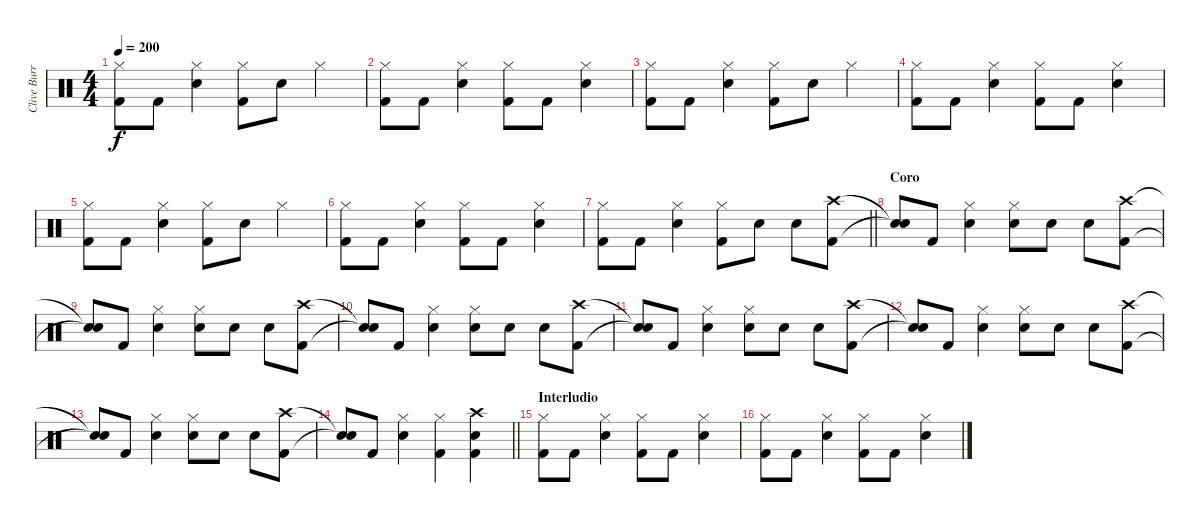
\track ("Clive Burr" "Clive Burr") {instrument percussion}
\staff {score}
\articulation defaults
\ts (4 4)
\tempo 200
\clef neutral
\ks c
("Hi-Hat (closed)" "Kick (hit) 2").8{dy f} "Kick (hit) 2".8 ("Hi-Hat (closed)" "Snare (hit) 2").4 ("Hi-Hat (closed)" "Kick (hit) 2").8 "Snare (hit) 2".8 "Hi-Hat (closed)".4 |
("Hi-Hat (closed)" "Kick (hit) 2").8 "Kick (hit) 2".8 ("Hi-Hat (closed)" "Snare (hit) 2").4 ("Hi-Hat (closed)" "Kick (hit) 2").8 "Kick (hit) 2".8 ("Hi-Hat (closed)" "Snare (hit) 2").4 |
("Hi-Hat (closed)" "Kick (hit) 2").8 "Kick (hit) 2".8 ("Hi-Hat (closed)" "Snare (hit) 2").4 ("Hi-Hat (closed)" "Kick (hit) 2").8 "Snare (hit) 2".8 "Hi-Hat (closed)".4 |
("Hi-Hat (closed)" "Kick (hit) 2").8 "Kick (hit) 2".8 ("Hi-Hat (closed)" "Snare (hit) 2").4 ("Hi-Hat (closed)" "Kick (hit) 2").8 "Kick (hit) 2".8 ("Hi-Hat (closed)" "Snare (hit) 2").4 |
("Hi-Hat (closed)" "Kick (hit) 2").8 "Kick (hit) 2".8 ("Hi-Hat (closed)" "Snare (hit) 2").4 ("Hi-Hat (closed)" "Kick (hit) 2").8 "Snare (hit) 2".8 "Hi-Hat (closed)".4 |
("Hi-Hat (closed)" "Kick (hit) 2").8 "Kick (hit) 2".8 ("Hi-Hat (closed)" "Snare (hit) 2").4 ("Hi-Hat (closed)" "Kick (hit) 2").8 "Kick (hit) 2".8 ("Hi-Hat (closed)" "Snare (hit) 2").4 |
\barLineRight lightlight
("Hi-Hat (closed)" "Kick (hit) 2").8 "Kick (hit) 2".8 ("Hi-Hat (closed)" "Snare (hit) 2").4 ("Hi-Hat (closed)" "Kick (hit) 2").8 "Snare (hit) 2".8 "Snare (hit) 2".8 ("Crash high (hit)" "Kick (hit) 2").8 |
\section ("" "Coro")
("Snare (hit)"{t} "Snare (hit)"{t}).8 "Kick (hit) 2".8 ("Hi-Hat (closed)" "Snare (hit) 2").4 ("Hi-Hat (closed)" "Snare (hit) 2").8 "Snare (hit) 2".8 "Snare (hit) 2".8 ("Crash high (hit)" "Kick (hit) 2").8 |
("Snare (hit)"{t} "Snare (hit)"{t}).8 "Kick (hit) 2".8 ("Hi-Hat (closed)" "Snare (hit) 2").4 ("Hi-Hat (closed)" "Snare (hit) 2").8 "Snare (hit) 2".8 "Snare (hit) 2".8 ("Crash high (hit)" "Kick (hit) 2").8 |
("Snare (hit)"{t} "Snare (hit)"{t}).8 "Kick (hit) 2".8 ("Hi-Hat (closed)" "Snare (hit) 2").4 ("Hi-Hat (closed)" "Snare (hit) 2").8 "Snare (hit) 2".8 "Snare (hit) 2".8 ("Crash high (hit)" "Kick (hit) 2").8 |
("Snare (hit)"{t} "Snare (hit)"{t}).8 "Kick (hit) 2".8 ("Hi-Hat (closed)" "Snare (hit) 2").4 ("Hi-Hat (closed)" "Snare (hit) 2").8 "Snare (hit) 2".8 "Snare (hit) 2".8 ("Crash high (hit)" "Kick (hit) 2").8 |
("Snare (hit)"{t} "Snare (hit)"{t}).8 "Kick (hit) 2".8 ("Hi-Hat (closed)" "Snare (hit) 2").4 ("Hi-Hat (closed)" "Snare (hit) 2").8 "Snare (hit) 2".8 "Snare (hit) 2".8 ("Crash high (hit)" "Kick (hit) 2").8 |
("Snare (hit)"{t} "Snare (hit)"{t}).8 "Kick (hit) 2".8 ("Hi-Hat (closed)" "Snare (hit) 2").4 ("Hi-Hat (closed)" "Snare (hit) 2").8 "Snare (hit) 2".8 "Snare (hit) 2".8 ("Crash high (hit)" "Kick (hit) 2").8 |
\barLineRight lightlight
("Snare (hit)"{t} "Snare (hit)"{t}).8 "Kick (hit) 2".8 ("Hi-Hat (closed)" "Snare (hit) 2").4 ("Hi-Hat (closed)" "Kick (hit) 2").4 ("Crash high (hit)" "Snare (hit) 2" "Kick (hit) 2").4 |
\section ("" "Interludio")
("Hi-Hat (closed)" "Kick (hit) 2").8 "Kick (hit) 2".8 ("Hi-Hat (closed)" "Snare (hit) 2").4 ("Hi-Hat (closed)" "Kick (hit) 2").8 "Kick (hit) 2".8 ("Hi-Hat (closed)" "Snare (hit) 2").4 |
("Hi-Hat (closed)" "Kick (hit) 2").8 "Kick (hit) 2".8 ("Hi-Hat (closed)" "Snare (hit) 2").4 ("Hi-Hat (closed)" "Kick (hit) 2").8 "Kick (hit) 2".8 ("Hi-Hat (closed)" "Snare (hit) 2").4
